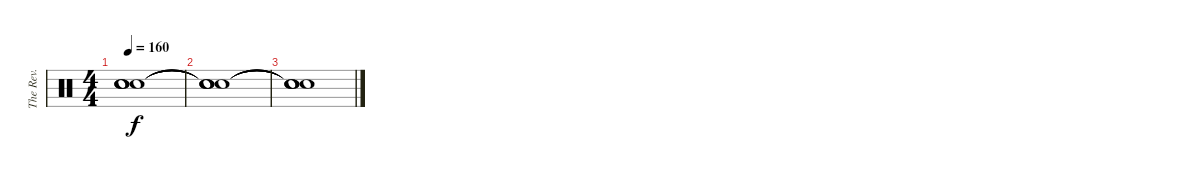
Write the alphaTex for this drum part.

\track ("The Rev." "The Rev.") {instrument percussion}
\staff {score}
\articulation defaults
\ts (4 4)
\tempo 160
\clef neutral
\ks c
("Snare (hit)"{t} "Snare (hit)"{t} "Snare (hit)"{t} "Snare (hit)"{t}).1{dy f} |
("Snare (hit)"{t} "Snare (hit)"{t} "Snare (hit)"{t} "Snare (hit)"{t}).1 |
("Snare (hit)"{t} "Snare (hit)"{t} "Snare (hit)"{t} "Snare (hit)"{t}).1
